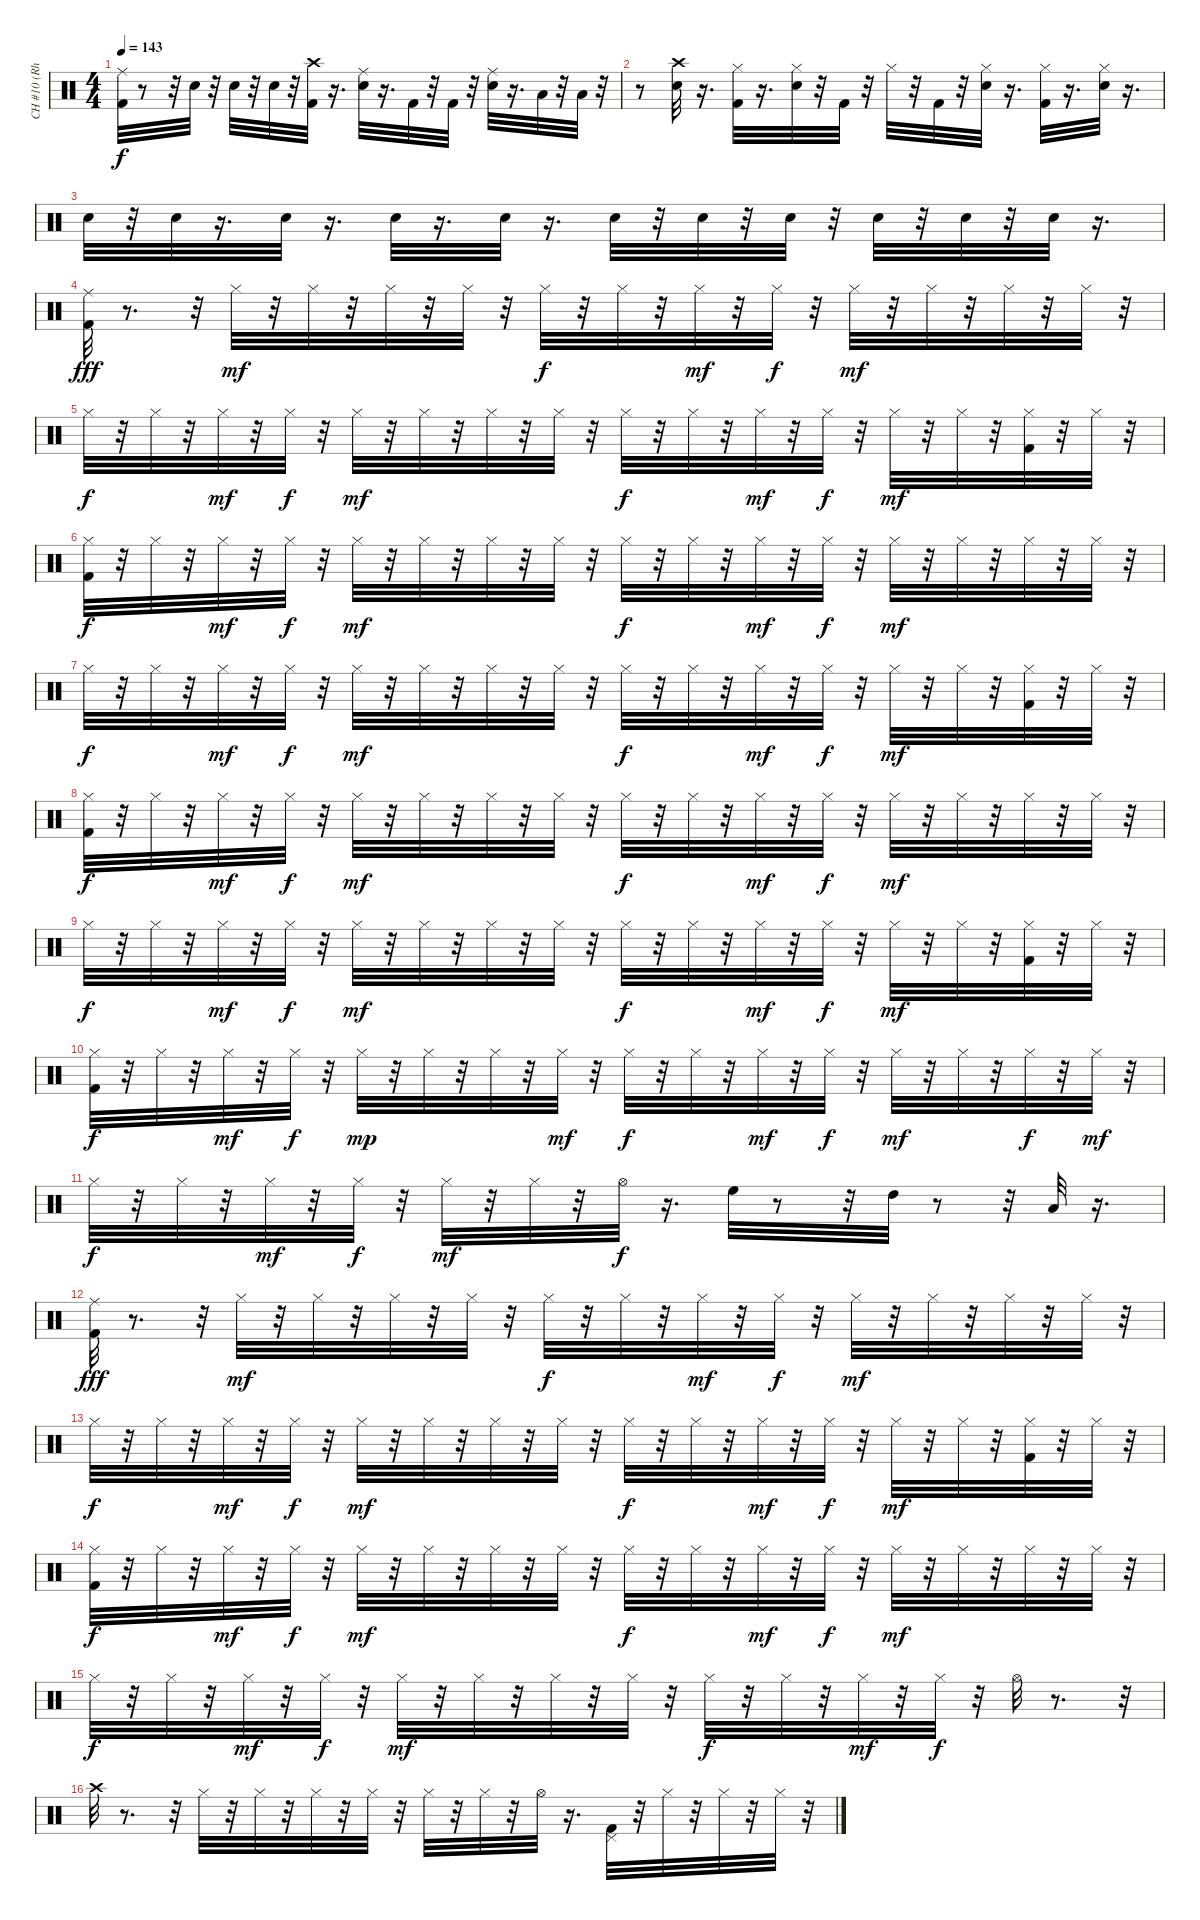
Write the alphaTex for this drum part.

\track ("CH #10 (Rhythm channel)" "CH #10 (Rh") {instrument percussion}
\staff {score}
\articulation defaults
\ts (4 4)
\tempo 143
\clef neutral
\ks c
("Kick (hit) 2" "Ride (middle)").32{dy f} r.8 r.32 "Electric Snare (hit)".32 r.32 "Electric Snare (hit)".32 r.32 "Electric Snare (hit)".32 r.32 ("Kick (hit) 2" "Crash high (hit)").32 r.16{d} ("Electric Snare (hit)" "Ride (middle)").32 r.16{d} "Kick (hit) 2".32 r.32 "Kick (hit) 2".32 r.32 ("Electric Snare (hit)" "Ride (middle)").32 r.16{d} "Low Tom (hit)".32 r.32 "Low Floor Tom (hit)".32 r.32 |
r.8 ("Electric Snare (hit)" "Crash high (hit)").32 r.16{d} ("Hi-Hat (closed)" "Kick (hit) 2").32 r.16{d} ("Electric Snare (hit)" "Hi-Hat (closed)").32 r.32 "Kick (hit) 2".32 r.32 "Hi-Hat (closed)".32 r.32 "Kick (hit) 2".32 r.32 ("Electric Snare (hit)" "Hi-Hat (closed)").32 r.16{d} ("Hi-Hat (closed)" "Kick (hit) 2").32 r.16{d} ("Electric Snare (hit)" "Hi-Hat (closed)").32 r.16{d} |
"Electric Snare (hit)".32 r.32 "Electric Snare (hit)".32 r.16{d} "Electric Snare (hit)".32 r.16{d} "Electric Snare (hit)".32 r.16{d} "Electric Snare (hit)".32 r.16{d} "Electric Snare (hit)".32 r.32 "Electric Snare (hit)".32 r.32 "Electric Snare (hit)".32 r.32 "Electric Snare (hit)".32 r.32 "Electric Snare (hit)".32 r.32 "Electric Snare (hit)".32 r.16{d} |
("Kick (hit) 2" "Ride (middle)").32{dy fff} r.8{d} r.32 "Hi-Hat (closed)".32{dy mf} r.32 "Hi-Hat (closed)".32 r.32 "Hi-Hat (closed)".32 r.32 "Hi-Hat (closed)".32 r.32 "Hi-Hat (closed)".32{dy f} r.32 "Hi-Hat (closed)".32 r.32 "Hi-Hat (closed)".32{dy mf} r.32 "Hi-Hat (closed)".32{dy f} r.32 "Hi-Hat (closed)".32{dy mf} r.32 "Hi-Hat (closed)".32 r.32 "Hi-Hat (closed)".32 r.32 "Hi-Hat (closed)".32 r.32 |
"Hi-Hat (closed)".32{dy f} r.32 "Hi-Hat (closed)".32 r.32 "Hi-Hat (closed)".32{dy mf} r.32 "Hi-Hat (closed)".32{dy f} r.32 "Hi-Hat (closed)".32{dy mf} r.32 "Hi-Hat (closed)".32 r.32 "Hi-Hat (closed)".32 r.32 "Hi-Hat (closed)".32 r.32 "Hi-Hat (closed)".32{dy f} r.32 "Hi-Hat (closed)".32 r.32 "Hi-Hat (closed)".32{dy mf} r.32 "Hi-Hat (closed)".32{dy f} r.32 "Hi-Hat (closed)".32{dy mf} r.32 "Hi-Hat (closed)".32 r.32 ("Hi-Hat (closed)" "Kick (hit) 2").32 r.32 "Hi-Hat (closed)".32 r.32 |
("Kick (hit) 2" "Hi-Hat (closed)").32{dy f} r.32 "Hi-Hat (closed)".32 r.32 "Hi-Hat (closed)".32{dy mf} r.32 "Hi-Hat (closed)".32{dy f} r.32 "Hi-Hat (closed)".32{dy mf} r.32 "Hi-Hat (closed)".32 r.32 "Hi-Hat (closed)".32 r.32 "Hi-Hat (closed)".32 r.32 "Hi-Hat (closed)".32{dy f} r.32 "Hi-Hat (closed)".32 r.32 "Hi-Hat (closed)".32{dy mf} r.32 "Hi-Hat (closed)".32{dy f} r.32 "Hi-Hat (closed)".32{dy mf} r.32 "Hi-Hat (closed)".32 r.32 "Hi-Hat (closed)".32 r.32 "Hi-Hat (closed)".32 r.32 |
"Hi-Hat (closed)".32{dy f} r.32 "Hi-Hat (closed)".32 r.32 "Hi-Hat (closed)".32{dy mf} r.32 "Hi-Hat (closed)".32{dy f} r.32 "Hi-Hat (closed)".32{dy mf} r.32 "Hi-Hat (closed)".32 r.32 "Hi-Hat (closed)".32 r.32 "Hi-Hat (closed)".32 r.32 "Hi-Hat (closed)".32{dy f} r.32 "Hi-Hat (closed)".32 r.32 "Hi-Hat (closed)".32{dy mf} r.32 "Hi-Hat (closed)".32{dy f} r.32 "Hi-Hat (closed)".32{dy mf} r.32 "Hi-Hat (closed)".32 r.32 ("Hi-Hat (closed)" "Kick (hit) 2").32 r.32 "Hi-Hat (closed)".32 r.32 |
("Kick (hit) 2" "Hi-Hat (closed)").32{dy f} r.32 "Hi-Hat (closed)".32 r.32 "Hi-Hat (closed)".32{dy mf} r.32 "Hi-Hat (closed)".32{dy f} r.32 "Hi-Hat (closed)".32{dy mf} r.32 "Hi-Hat (closed)".32 r.32 "Hi-Hat (closed)".32 r.32 "Hi-Hat (closed)".32 r.32 "Hi-Hat (closed)".32{dy f} r.32 "Hi-Hat (closed)".32 r.32 "Hi-Hat (closed)".32{dy mf} r.32 "Hi-Hat (closed)".32{dy f} r.32 "Hi-Hat (closed)".32{dy mf} r.32 "Hi-Hat (closed)".32 r.32 "Hi-Hat (closed)".32 r.32 "Hi-Hat (closed)".32 r.32 |
"Hi-Hat (closed)".32{dy f} r.32 "Hi-Hat (closed)".32 r.32 "Hi-Hat (closed)".32{dy mf} r.32 "Hi-Hat (closed)".32{dy f} r.32 "Hi-Hat (closed)".32{dy mf} r.32 "Hi-Hat (closed)".32 r.32 "Hi-Hat (closed)".32 r.32 "Hi-Hat (closed)".32 r.32 "Hi-Hat (closed)".32{dy f} r.32 "Hi-Hat (closed)".32 r.32 "Hi-Hat (closed)".32{dy mf} r.32 "Hi-Hat (closed)".32{dy f} r.32 "Hi-Hat (closed)".32{dy mf} r.32 "Hi-Hat (closed)".32 r.32 ("Hi-Hat (closed)" "Kick (hit) 2").32 r.32 "Hi-Hat (closed)".32 r.32 |
("Hi-Hat (closed)" "Kick (hit) 2").32{dy f} r.32 "Hi-Hat (closed)".32 r.32 "Hi-Hat (closed)".32{dy mf} r.32 "Hi-Hat (closed)".32{dy f} r.32 "Hi-Hat (closed)".32{dy mp} r.32 "Hi-Hat (closed)".32 r.32 "Hi-Hat (closed)".32 r.32 "Hi-Hat (closed)".32{dy mf} r.32 "Hi-Hat (closed)".32{dy f} r.32 "Hi-Hat (closed)".32 r.32 "Hi-Hat (closed)".32{dy mf} r.32 "Hi-Hat (closed)".32{dy f} r.32 "Hi-Hat (closed)".32{dy mf} r.32 "Hi-Hat (closed)".32 r.32 "Hi-Hat (closed)".32{dy f} r.32 "Hi-Hat (closed)".32{dy mf} r.32 |
"Hi-Hat (closed)".32{dy f} r.32 "Hi-Hat (closed)".32 r.32 "Hi-Hat (closed)".32{dy mf} r.32 "Hi-Hat (closed)".32{dy f} r.32 "Hi-Hat (closed)".32{dy mf} r.32 "Hi-Hat (closed)".32 r.32 "Hi-Hat (open)".32{dy f} r.16{d} "High Floor Tom (hit)".32 r.8 r.32 "High Tom (hit)".32 r.8 r.32 "Low Tom (hit)".32 r.16{d} |
("Kick (hit) 2" "Ride (middle)").32{dy fff} r.8{d} r.32 "Hi-Hat (closed)".32{dy mf} r.32 "Hi-Hat (closed)".32 r.32 "Hi-Hat (closed)".32 r.32 "Hi-Hat (closed)".32 r.32 "Hi-Hat (closed)".32{dy f} r.32 "Hi-Hat (closed)".32 r.32 "Hi-Hat (closed)".32{dy mf} r.32 "Hi-Hat (closed)".32{dy f} r.32 "Hi-Hat (closed)".32{dy mf} r.32 "Hi-Hat (closed)".32 r.32 "Hi-Hat (closed)".32 r.32 "Hi-Hat (closed)".32 r.32 |
"Hi-Hat (closed)".32{dy f} r.32 "Hi-Hat (closed)".32 r.32 "Hi-Hat (closed)".32{dy mf} r.32 "Hi-Hat (closed)".32{dy f} r.32 "Hi-Hat (closed)".32{dy mf} r.32 "Hi-Hat (closed)".32 r.32 "Hi-Hat (closed)".32 r.32 "Hi-Hat (closed)".32 r.32 "Hi-Hat (closed)".32{dy f} r.32 "Hi-Hat (closed)".32 r.32 "Hi-Hat (closed)".32{dy mf} r.32 "Hi-Hat (closed)".32{dy f} r.32 "Hi-Hat (closed)".32{dy mf} r.32 "Hi-Hat (closed)".32 r.32 ("Hi-Hat (closed)" "Kick (hit) 2").32 r.32 "Hi-Hat (closed)".32 r.32 |
("Kick (hit) 2" "Hi-Hat (closed)").32{dy f} r.32 "Hi-Hat (closed)".32 r.32 "Hi-Hat (closed)".32{dy mf} r.32 "Hi-Hat (closed)".32{dy f} r.32 "Hi-Hat (closed)".32{dy mf} r.32 "Hi-Hat (closed)".32 r.32 "Hi-Hat (closed)".32 r.32 "Hi-Hat (closed)".32 r.32 "Hi-Hat (closed)".32{dy f} r.32 "Hi-Hat (closed)".32 r.32 "Hi-Hat (closed)".32{dy mf} r.32 "Hi-Hat (closed)".32{dy f} r.32 "Hi-Hat (closed)".32{dy mf} r.32 "Hi-Hat (closed)".32 r.32 "Hi-Hat (closed)".32 r.32 "Hi-Hat (closed)".32 r.32 |
"Hi-Hat (closed)".32{dy f} r.32 "Hi-Hat (closed)".32 r.32 "Hi-Hat (closed)".32{dy mf} r.32 "Hi-Hat (closed)".32{dy f} r.32 "Hi-Hat (closed)".32{dy mf} r.32 "Hi-Hat (closed)".32 r.32 "Hi-Hat (closed)".32 r.32 "Hi-Hat (closed)".32 r.32 "Hi-Hat (closed)".32{dy f} r.32 "Hi-Hat (closed)".32 r.32 "Hi-Hat (closed)".32{dy mf} r.32 "Hi-Hat (closed)".32{dy f} r.32 "Hi-Hat (open)".32 r.8{d} r.32 |
"Crash high (hit)".32 r.8{d} r.32 "Hi-Hat (closed)".32 r.32 "Hi-Hat (closed)".32 r.32 "Hi-Hat (closed)".32 r.32 "Hi-Hat (closed)".32 r.32 "Hi-Hat (closed)".32 r.32 "Hi-Hat (closed)".32 r.32 "Hi-Hat (open)".32 r.16{d} ("Pedal Hi-Hat (hit)" "Kick (hit) 2").32 r.32 "Hi-Hat (closed)".32 r.32 "Hi-Hat (closed)".32 r.32 "Hi-Hat (closed)".32 r.32
